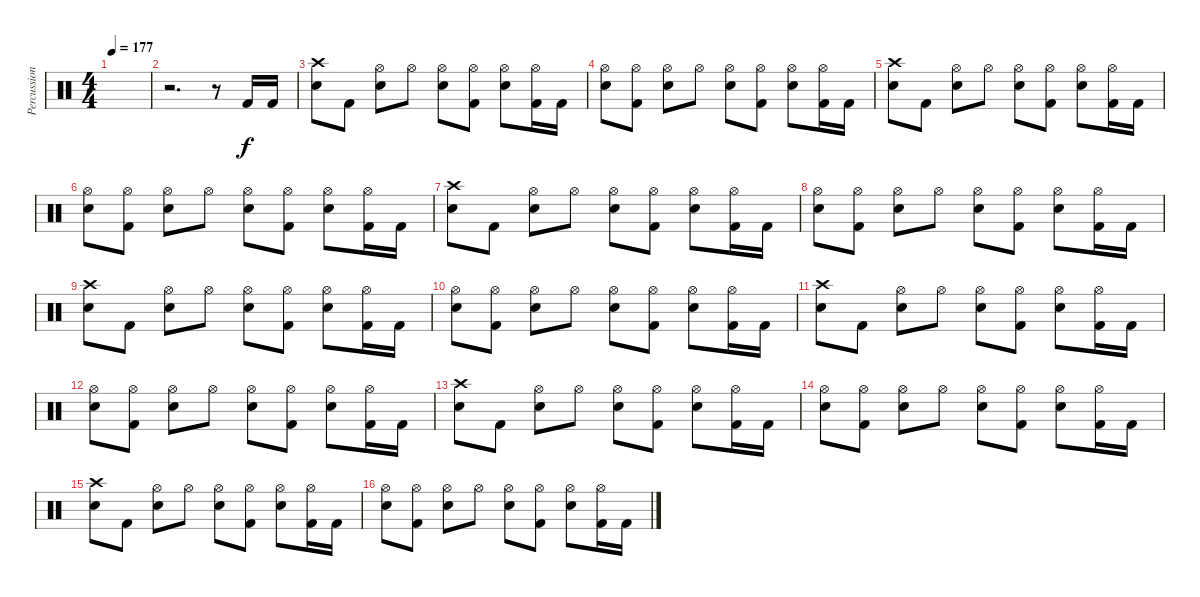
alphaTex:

\track ("Percussion" "Percussion") {instrument percussion}
\staff {score}
\articulation defaults
\ts (4 4)
\tempo 177
\clef neutral
\ks c
|
r.2{d} r.8 "Kick (hit) 2".16 "Kick (hit) 2".16 |
("Crash high (hit)" "Snare (hit) 2").8 "Kick (hit) 2".8 ("Hi-Hat (open)" "Snare (hit) 2").8 "Hi-Hat (open)".8 ("Hi-Hat (open)" "Snare (hit) 2").8 ("Hi-Hat (open)" "Kick (hit) 2").8 ("Hi-Hat (open)" "Snare (hit) 2").8 ("Hi-Hat (open)" "Kick (hit) 2").16 "Kick (hit) 2".16 |
("Hi-Hat (open)" "Snare (hit) 2").8 ("Hi-Hat (open)" "Kick (hit) 2").8 ("Hi-Hat (open)" "Snare (hit) 2").8 "Hi-Hat (open)".8 ("Hi-Hat (open)" "Snare (hit) 2").8 ("Hi-Hat (open)" "Kick (hit) 2").8 ("Hi-Hat (open)" "Snare (hit) 2").8 ("Hi-Hat (open)" "Kick (hit) 2").16 "Kick (hit) 2".16 |
("Crash high (hit)" "Snare (hit) 2").8 "Kick (hit) 2".8 ("Hi-Hat (open)" "Snare (hit) 2").8 "Hi-Hat (open)".8 ("Hi-Hat (open)" "Snare (hit) 2").8 ("Hi-Hat (open)" "Kick (hit) 2").8 ("Hi-Hat (open)" "Snare (hit) 2").8 ("Hi-Hat (open)" "Kick (hit) 2").16 "Kick (hit) 2".16 |
("Hi-Hat (open)" "Snare (hit) 2").8 ("Hi-Hat (open)" "Kick (hit) 2").8 ("Hi-Hat (open)" "Snare (hit) 2").8 "Hi-Hat (open)".8 ("Hi-Hat (open)" "Snare (hit) 2").8 ("Hi-Hat (open)" "Kick (hit) 2").8 ("Hi-Hat (open)" "Snare (hit) 2").8 ("Hi-Hat (open)" "Kick (hit) 2").16 "Kick (hit) 2".16 |
("Crash high (hit)" "Snare (hit) 2").8 "Kick (hit) 2".8 ("Hi-Hat (open)" "Snare (hit) 2").8 "Hi-Hat (open)".8 ("Hi-Hat (open)" "Snare (hit) 2").8 ("Hi-Hat (open)" "Kick (hit) 2").8 ("Hi-Hat (open)" "Snare (hit) 2").8 ("Hi-Hat (open)" "Kick (hit) 2").16 "Kick (hit) 2".16 |
("Hi-Hat (open)" "Snare (hit) 2").8 ("Hi-Hat (open)" "Kick (hit) 2").8 ("Hi-Hat (open)" "Snare (hit) 2").8 "Hi-Hat (open)".8 ("Hi-Hat (open)" "Snare (hit) 2").8 ("Hi-Hat (open)" "Kick (hit) 2").8 ("Hi-Hat (open)" "Snare (hit) 2").8 ("Hi-Hat (open)" "Kick (hit) 2").16 "Kick (hit) 2".16 |
("Crash high (hit)" "Snare (hit) 2").8 "Kick (hit) 2".8 ("Hi-Hat (open)" "Snare (hit) 2").8 "Hi-Hat (open)".8 ("Hi-Hat (open)" "Snare (hit) 2").8 ("Hi-Hat (open)" "Kick (hit) 2").8 ("Hi-Hat (open)" "Snare (hit) 2").8 ("Hi-Hat (open)" "Kick (hit) 2").16 "Kick (hit) 2".16 |
("Hi-Hat (open)" "Snare (hit) 2").8 ("Hi-Hat (open)" "Kick (hit) 2").8 ("Hi-Hat (open)" "Snare (hit) 2").8 "Hi-Hat (open)".8 ("Hi-Hat (open)" "Snare (hit) 2").8 ("Hi-Hat (open)" "Kick (hit) 2").8 ("Hi-Hat (open)" "Snare (hit) 2").8 ("Hi-Hat (open)" "Kick (hit) 2").16 "Kick (hit) 2".16 |
("Crash high (hit)" "Snare (hit) 2").8 "Kick (hit) 2".8 ("Hi-Hat (open)" "Snare (hit) 2").8 "Hi-Hat (open)".8 ("Hi-Hat (open)" "Snare (hit) 2").8 ("Hi-Hat (open)" "Kick (hit) 2").8 ("Hi-Hat (open)" "Snare (hit) 2").8 ("Hi-Hat (open)" "Kick (hit) 2").16 "Kick (hit) 2".16 |
("Hi-Hat (open)" "Snare (hit) 2").8 ("Hi-Hat (open)" "Kick (hit) 2").8 ("Hi-Hat (open)" "Snare (hit) 2").8 "Hi-Hat (open)".8 ("Hi-Hat (open)" "Snare (hit) 2").8 ("Hi-Hat (open)" "Kick (hit) 2").8 ("Hi-Hat (open)" "Snare (hit) 2").8 ("Hi-Hat (open)" "Kick (hit) 2").16 "Kick (hit) 2".16 |
("Crash high (hit)" "Snare (hit) 2").8 "Kick (hit) 2".8 ("Hi-Hat (open)" "Snare (hit) 2").8 "Hi-Hat (open)".8 ("Hi-Hat (open)" "Snare (hit) 2").8 ("Hi-Hat (open)" "Kick (hit) 2").8 ("Hi-Hat (open)" "Snare (hit) 2").8 ("Hi-Hat (open)" "Kick (hit) 2").16 "Kick (hit) 2".16 |
("Hi-Hat (open)" "Snare (hit) 2").8 ("Hi-Hat (open)" "Kick (hit) 2").8 ("Hi-Hat (open)" "Snare (hit) 2").8 "Hi-Hat (open)".8 ("Hi-Hat (open)" "Snare (hit) 2").8 ("Hi-Hat (open)" "Kick (hit) 2").8 ("Hi-Hat (open)" "Snare (hit) 2").8 ("Hi-Hat (open)" "Kick (hit) 2").16 "Kick (hit) 2".16 |
("Crash high (hit)" "Snare (hit) 2").8 "Kick (hit) 2".8 ("Hi-Hat (open)" "Snare (hit) 2").8 "Hi-Hat (open)".8 ("Hi-Hat (open)" "Snare (hit) 2").8 ("Hi-Hat (open)" "Kick (hit) 2").8 ("Hi-Hat (open)" "Snare (hit) 2").8 ("Hi-Hat (open)" "Kick (hit) 2").16 "Kick (hit) 2".16 |
("Hi-Hat (open)" "Snare (hit) 2").8 ("Hi-Hat (open)" "Kick (hit) 2").8 ("Hi-Hat (open)" "Snare (hit) 2").8 "Hi-Hat (open)".8 ("Hi-Hat (open)" "Snare (hit) 2").8 ("Hi-Hat (open)" "Kick (hit) 2").8 ("Hi-Hat (open)" "Snare (hit) 2").8 ("Hi-Hat (open)" "Kick (hit) 2").16 "Kick (hit) 2".16
